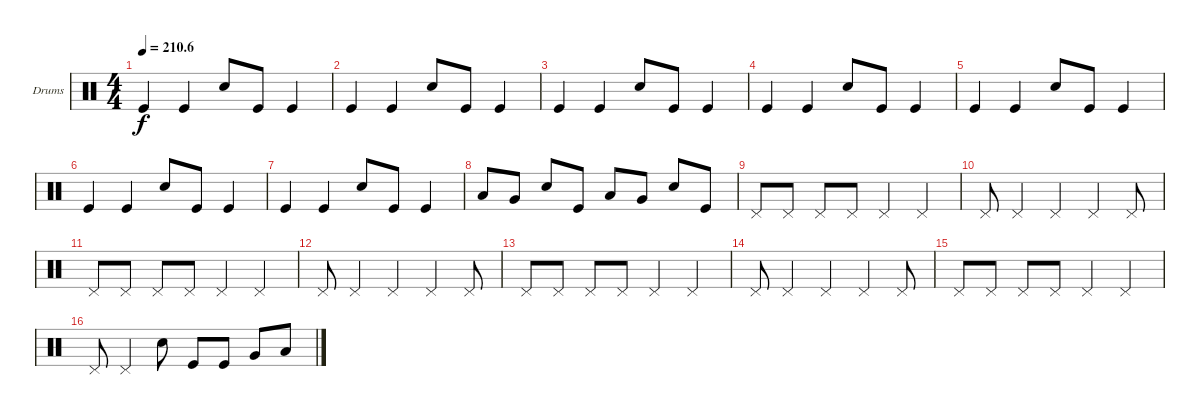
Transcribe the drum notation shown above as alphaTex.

\defaultSystemsLayout 4
\bracketExtendMode groupsimilarinstruments
\firstSystemTrackNameOrientation horizontal
\otherSystemsTrackNameOrientation horizontal
\track ("Drumkit" "Drums") {instrument percussion}
\staff {score}
\articulation defaults
\ts (4 4)
\tempo
210.6
\accidentals auto
\clef neutral
\ottava regular
\simile none
\ks c "Kick (hit)".4{dy f} "Kick (hit)".4 "Snare (hit) 2".8 "Kick (hit)".8 "Kick (hit)".4
|
"Kick (hit)".4 "Kick (hit)".4 "Snare (hit) 2".8 "Kick (hit)".8 "Kick (hit)".4 |
"Kick (hit)".4 "Kick (hit)".4 "Snare (hit) 2".8 "Kick (hit)".8 "Kick (hit)".4 |
"Kick (hit)".4 "Kick (hit)".4 "Snare (hit) 2".8 "Kick (hit)".8 "Kick (hit)".4 |
"Kick (hit)".4 "Kick (hit)".4 "Snare (hit) 2".8 "Kick (hit)".8 "Kick (hit)".4 |
"Kick (hit)".4 "Kick (hit)".4 "Snare (hit) 2".8 "Kick (hit)".8 "Kick (hit)".4 |
"Kick (hit)".4 "Kick (hit)".4 "Snare (hit) 2".8 "Kick (hit)".8 "Kick (hit)".4 |
"Low Tom (hit)".8 "Very Low Tom (hit)".8 "Snare (hit) 2".8 "Kick (hit)".8 "Low Tom (hit)".8 "Very Low Tom (hit)".8 "Snare (hit) 2".8 "Kick (hit)".8 |
"Pedal Hi-Hat (hit)".8 "Pedal Hi-Hat (hit)".8 "Pedal Hi-Hat (hit)".8 "Pedal Hi-Hat (hit)".8 "Pedal Hi-Hat (hit)".4 "Pedal Hi-Hat (hit)".4 |
"Pedal Hi-Hat (hit)".8 "Pedal Hi-Hat (hit)".4 "Pedal Hi-Hat (hit)".4 "Pedal Hi-Hat (hit)".4 "Pedal Hi-Hat (hit)".8 |
"Pedal Hi-Hat (hit)".8 "Pedal Hi-Hat (hit)".8 "Pedal Hi-Hat (hit)".8 "Pedal Hi-Hat (hit)".8 "Pedal Hi-Hat (hit)".4 "Pedal Hi-Hat (hit)".4 |
"Pedal Hi-Hat (hit)".8 "Pedal Hi-Hat (hit)".4 "Pedal Hi-Hat (hit)".4 "Pedal Hi-Hat (hit)".4 "Pedal Hi-Hat (hit)".8 |
"Pedal Hi-Hat (hit)".8 "Pedal Hi-Hat (hit)".8 "Pedal Hi-Hat (hit)".8 "Pedal Hi-Hat (hit)".8 "Pedal Hi-Hat (hit)".4 "Pedal Hi-Hat (hit)".4 |
"Pedal Hi-Hat (hit)".8 "Pedal Hi-Hat (hit)".4 "Pedal Hi-Hat (hit)".4 "Pedal Hi-Hat (hit)".4 "Pedal Hi-Hat (hit)".8 |
"Pedal Hi-Hat (hit)".8 "Pedal Hi-Hat (hit)".8 "Pedal Hi-Hat (hit)".8 "Pedal Hi-Hat (hit)".8 "Pedal Hi-Hat (hit)".4 "Pedal Hi-Hat (hit)".4 |
"Pedal Hi-Hat (hit)".8 "Pedal Hi-Hat (hit)".4 "Snare (hit) 2".8 "Kick (hit)".8 "Kick (hit)".8 "Very Low Tom (hit)".8 "Low Tom (hit)".8
